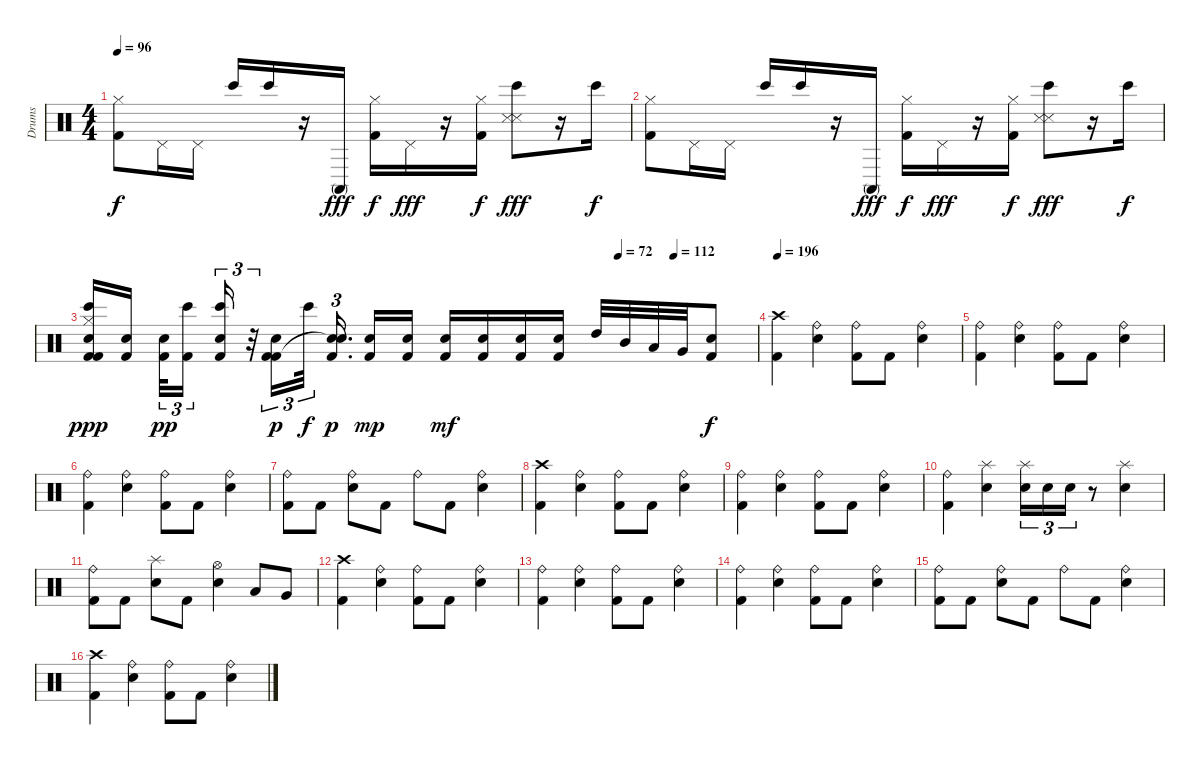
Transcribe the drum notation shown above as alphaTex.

\track ("Drums" "Drums") {instrument percussion}
\staff {score}
\articulation defaults
\ts (4 4)
\tempo 96
\clef neutral
\ks c
("Kick (hit) 2" "Hi-Hat (closed)").8{dy f} "Pedal Hi-Hat (hit)".16 "Pedal Hi-Hat (hit)".16 "Bongo High (hit)".16 "Bongo High (hit)".16 r.16 "Conga high (mute)".16{dy fff} ("Kick (hit) 2" "Hi-Hat (closed)").16{dy f} "Pedal Hi-Hat (hit)".16{dy fff} r.16 ("Kick (hit) 2" "Hi-Hat (closed)").16{dy f} ("Bongo High (hit)" "Snare (side stick) 3" "Metronome (hit)").8{dy fff} r.16 "Bongo High (hit)".16{dy f} |
("Kick (hit) 2" "Hi-Hat (closed)").8 "Pedal Hi-Hat (hit)".16 "Pedal Hi-Hat (hit)".16 "Bongo High (hit)".16 "Bongo High (hit)".16 r.16 "Conga high (mute)".16{dy fff} ("Kick (hit) 2" "Hi-Hat (closed)").16{dy f} "Pedal Hi-Hat (hit)".16{dy fff} r.16 ("Kick (hit) 2" "Hi-Hat (closed)").16{dy f} ("Bongo High (hit)" "Snare (side stick) 3" "Metronome (hit)").8{dy fff} r.16 "Bongo High (hit)".16{dy f} |
\tempo (72 0.7916666666666666)
\tempo (112 0.875)
("Snare (hit) 2" "Bongo High (hit)" "Kick (hit) 2" "Hi-Hat (closed)" "Kick (hit) 2").16{dy ppp} ("Snare (hit) 2" "Kick (hit) 2").16{beam splitsecondary} ("Snare (hit) 2" "Kick (hit) 2").32{tu (3 2) dy pp} ("Bongo High (hit)" "Kick (hit) 2").16{tu (3 2) beam splitsecondary} ("Snare (hit) 2" "Bongo High (hit)" "Kick (hit) 2").16{tu (3 2)} r.32{tu (3 2)} ("Snare (hit) 2" "Kick (hit) 2" "Kick (hit) 2").16{tu (3 2) dy p} "Bongo High (hit)".32{tu (3 2) dy f beam splitsecondary} ("Snare (hit) 2" "Snare (hit)"{t} "Kick (hit) 2").16{d tu (3 2) dy p beam splitsecondary} ("Snare (hit) 2" "Kick (hit) 2").16{dy mp} ("Snare (hit) 2" "Kick (hit) 2").16 ("Snare (hit) 2" "Kick (hit) 2").16{dy mf} ("Snare (hit) 2" "Kick (hit) 2").16 ("Snare (hit) 2" "Kick (hit) 2").16 ("Snare (hit) 2" "Kick (hit) 2").16 "High Tom (hit)".32 "Mid Tom (hit)".32 "Low Tom (hit)".32 "Very Low Tom (hit)".32 ("Snare (hit) 2" "Kick (hit) 2").8{dy f} |
\tempo 196
("Crash high (hit)" "Kick (hit) 2").4 ("Ride (bell)" "Snare (hit) 2").4 ("Ride (bell)" "Kick (hit) 2").8 "Kick (hit) 2".8 ("Ride (bell)" "Snare (hit) 2").4 |
("Ride (bell)" "Kick (hit) 2").4 ("Ride (bell)" "Snare (hit) 2").4 ("Ride (bell)" "Kick (hit) 2").8 "Kick (hit) 2".8 ("Ride (bell)" "Snare (hit) 2").4 |
("Ride (bell)" "Kick (hit) 2").4 ("Ride (bell)" "Snare (hit) 2").4 ("Ride (bell)" "Kick (hit) 2").8 "Kick (hit) 2".8 ("Ride (bell)" "Snare (hit) 2").4 |
("Ride (bell)" "Kick (hit) 2").8 "Kick (hit) 2".8 ("Ride (bell)" "Snare (hit) 2").8 "Kick (hit) 2".8 "Ride (bell)".8 "Kick (hit) 2".8 ("Ride (bell)" "Snare (hit) 2").4 |
("Crash high (hit)" "Kick (hit) 2").4 ("Ride (bell)" "Snare (hit) 2").4 ("Ride (bell)" "Kick (hit) 2").8 "Kick (hit) 2".8 ("Ride (bell)" "Snare (hit) 2").4 |
("Ride (bell)" "Kick (hit) 2").4 ("Ride (bell)" "Snare (hit) 2").4 ("Ride (bell)" "Kick (hit) 2").8 "Kick (hit) 2".8 ("Ride (bell)" "Snare (hit) 2").4 |
("Ride (bell)" "Kick (hit) 2").4 ("Splash (hit)" "Snare (hit) 2").4 ("Splash (hit)" "Snare (hit) 2").16{tu (3 2)} "Snare (hit) 2".16{tu (3 2)} "Snare (hit) 2".16{tu (3 2)} r.8 ("Splash (hit)" "Snare (hit) 2").4 |
("Ride (bell)" "Kick (hit) 2").8 "Kick (hit) 2".8 ("Splash (hit)" "Snare (hit) 2").8 "Kick (hit) 2".8 ("Hi-Hat (open)" "Snare (hit) 2").4 "Low Tom (hit)".8 "Very Low Tom (hit)".8 |
("Crash high (hit)" "Kick (hit) 2").4 ("Ride (bell)" "Snare (hit) 2").4 ("Ride (bell)" "Kick (hit) 2").8 "Kick (hit) 2".8 ("Ride (bell)" "Snare (hit) 2").4 |
("Ride (bell)" "Kick (hit) 2").4 ("Ride (bell)" "Snare (hit) 2").4 ("Ride (bell)" "Kick (hit) 2").8 "Kick (hit) 2".8 ("Ride (bell)" "Snare (hit) 2").4 |
("Ride (bell)" "Kick (hit) 2").4 ("Ride (bell)" "Snare (hit) 2").4 ("Ride (bell)" "Kick (hit) 2").8 "Kick (hit) 2".8 ("Ride (bell)" "Snare (hit) 2").4 |
("Ride (bell)" "Kick (hit) 2").8 "Kick (hit) 2".8 ("Ride (bell)" "Snare (hit) 2").8 "Kick (hit) 2".8 "Ride (bell)".8 "Kick (hit) 2".8 ("Ride (bell)" "Snare (hit) 2").4 |
("Crash high (hit)" "Kick (hit) 2").4 ("Ride (bell)" "Snare (hit) 2").4 ("Ride (bell)" "Kick (hit) 2").8 "Kick (hit) 2".8 ("Ride (bell)" "Snare (hit) 2").4
